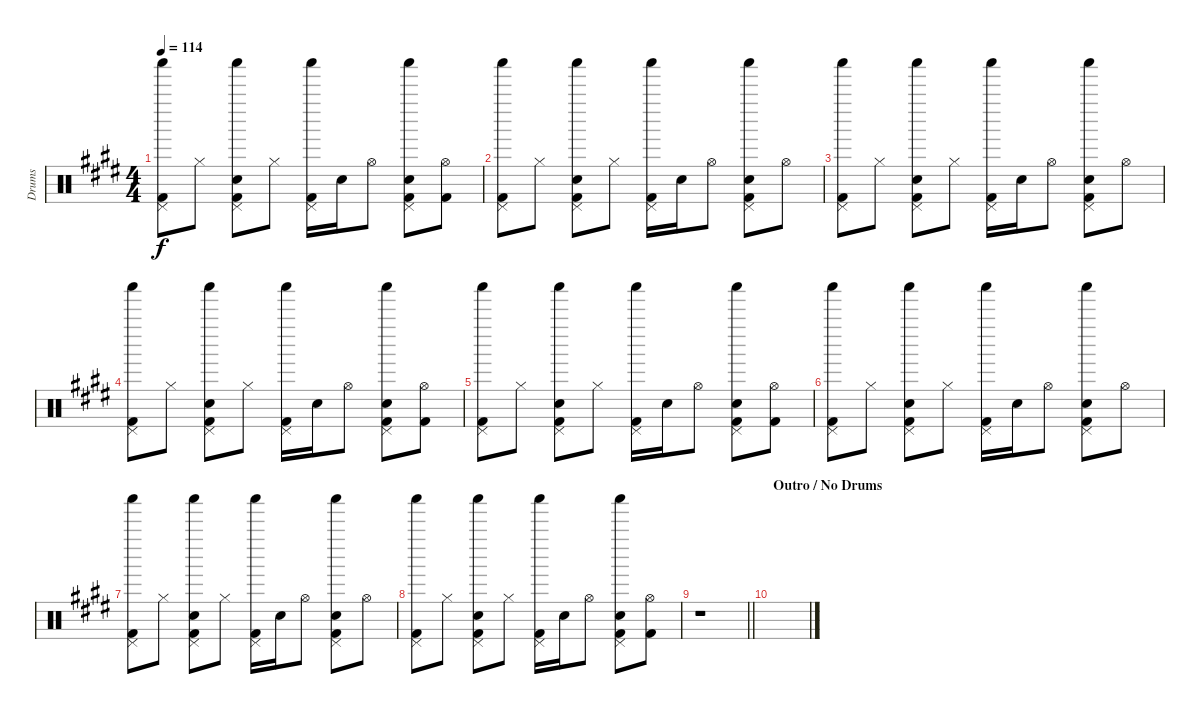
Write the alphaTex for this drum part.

\track ("Drums" "Drums") {instrument percussion}
\staff {score}
\articulation defaults
\ts (4 4)
\tempo 114
\clef neutral
\ks e
("Pedal Hi-Hat (hit)" "Shaker (hit)" "Kick (hit) 2").8{dy f} "Hi-Hat (closed)".8 ("Pedal Hi-Hat (hit)" "Shaker (hit)" "Electric Snare (hit)" "Kick (hit) 2").8 "Hi-Hat (closed)".8 ("Pedal Hi-Hat (hit)" "Shaker (hit)" "Kick (hit) 2").16 "Electric Snare (hit)".16 "Hi-Hat (open)".8 ("Pedal Hi-Hat (hit)" "Shaker (hit)" "Electric Snare (hit)" "Kick (hit) 2").8 ("Hi-Hat (open)" "Kick (hit) 2").8 |
("Pedal Hi-Hat (hit)" "Shaker (hit)" "Kick (hit) 2").8 "Hi-Hat (closed)".8 ("Pedal Hi-Hat (hit)" "Shaker (hit)" "Electric Snare (hit)" "Kick (hit) 2").8 "Hi-Hat (closed)".8 ("Pedal Hi-Hat (hit)" "Shaker (hit)" "Kick (hit) 2").16 "Electric Snare (hit)".16 "Hi-Hat (open)".8 ("Pedal Hi-Hat (hit)" "Shaker (hit)" "Electric Snare (hit)" "Kick (hit) 2").8 "Hi-Hat (open)".8 |
("Pedal Hi-Hat (hit)" "Shaker (hit)" "Kick (hit) 2").8 "Hi-Hat (closed)".8 ("Pedal Hi-Hat (hit)" "Shaker (hit)" "Electric Snare (hit)" "Kick (hit) 2").8 "Hi-Hat (closed)".8 ("Pedal Hi-Hat (hit)" "Shaker (hit)" "Kick (hit) 2").16 "Electric Snare (hit)".16 "Hi-Hat (open)".8 ("Pedal Hi-Hat (hit)" "Shaker (hit)" "Electric Snare (hit)" "Kick (hit) 2").8 "Hi-Hat (open)".8 |
("Pedal Hi-Hat (hit)" "Shaker (hit)" "Kick (hit) 2").8 "Hi-Hat (closed)".8 ("Pedal Hi-Hat (hit)" "Shaker (hit)" "Electric Snare (hit)" "Kick (hit) 2").8 "Hi-Hat (closed)".8 ("Pedal Hi-Hat (hit)" "Shaker (hit)" "Kick (hit) 2").16 "Electric Snare (hit)".16 "Hi-Hat (open)".8 ("Pedal Hi-Hat (hit)" "Shaker (hit)" "Electric Snare (hit)" "Kick (hit) 2").8 ("Hi-Hat (open)" "Kick (hit) 2").8 |
("Pedal Hi-Hat (hit)" "Shaker (hit)" "Kick (hit) 2").8 "Hi-Hat (closed)".8 ("Pedal Hi-Hat (hit)" "Shaker (hit)" "Electric Snare (hit)" "Kick (hit) 2").8 "Hi-Hat (closed)".8 ("Pedal Hi-Hat (hit)" "Shaker (hit)" "Kick (hit) 2").16 "Electric Snare (hit)".16 "Hi-Hat (open)".8 ("Pedal Hi-Hat (hit)" "Shaker (hit)" "Electric Snare (hit)" "Kick (hit) 2").8 ("Hi-Hat (open)" "Kick (hit) 2").8 |
("Pedal Hi-Hat (hit)" "Shaker (hit)" "Kick (hit) 2").8 "Hi-Hat (closed)".8 ("Pedal Hi-Hat (hit)" "Shaker (hit)" "Electric Snare (hit)" "Kick (hit) 2").8 "Hi-Hat (closed)".8 ("Pedal Hi-Hat (hit)" "Shaker (hit)" "Kick (hit) 2").16 "Electric Snare (hit)".16 "Hi-Hat (open)".8 ("Pedal Hi-Hat (hit)" "Shaker (hit)" "Electric Snare (hit)" "Kick (hit) 2").8 "Hi-Hat (open)".8 |
("Pedal Hi-Hat (hit)" "Shaker (hit)" "Kick (hit) 2").8 "Hi-Hat (closed)".8 ("Pedal Hi-Hat (hit)" "Shaker (hit)" "Electric Snare (hit)" "Kick (hit) 2").8 "Hi-Hat (closed)".8 ("Pedal Hi-Hat (hit)" "Shaker (hit)" "Kick (hit) 2").16 "Electric Snare (hit)".16 "Hi-Hat (open)".8 ("Pedal Hi-Hat (hit)" "Shaker (hit)" "Electric Snare (hit)" "Kick (hit) 2").8 "Hi-Hat (open)".8 |
("Pedal Hi-Hat (hit)" "Shaker (hit)" "Kick (hit) 2").8 "Hi-Hat (closed)".8 ("Pedal Hi-Hat (hit)" "Shaker (hit)" "Electric Snare (hit)" "Kick (hit) 2").8 "Hi-Hat (closed)".8 ("Pedal Hi-Hat (hit)" "Shaker (hit)" "Kick (hit) 2").16 "Electric Snare (hit)".16 "Hi-Hat (open)".8 ("Pedal Hi-Hat (hit)" "Shaker (hit)" "Electric Snare (hit)" "Kick (hit) 2").8 ("Hi-Hat (open)" "Kick (hit) 2").8 |
\barLineRight lightlight
r.1 |
\section ("" "Outro / No Drums")
